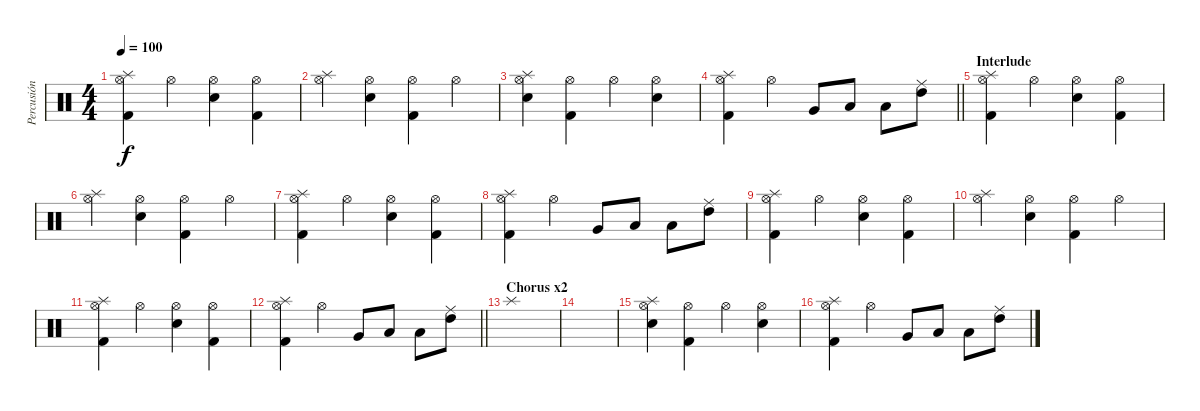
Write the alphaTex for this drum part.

\track ("Percusión" "Percusión") {instrument percussion}
\staff {score}
\articulation defaults
\ts (4 4)
\tempo 100
\clef neutral
\ks c
("Splash (hit)" "Hi-Hat (open)" "Kick (hit) 2").4{dy f} "Hi-Hat (open)".4 ("Snare (hit) 2" "Hi-Hat (open)").4 ("Hi-Hat (open)" "Kick (hit) 2").4 |
("Splash (hit)" "Hi-Hat (open)").4 ("Snare (hit) 2" "Hi-Hat (open)").4 ("Hi-Hat (open)" "Kick (hit) 2").4 "Hi-Hat (open)".4 |
("Splash (hit)" "Snare (hit) 2" "Hi-Hat (open)").4 ("Hi-Hat (open)" "Kick (hit) 2").4 "Hi-Hat (open)".4 ("Snare (hit) 2" "Hi-Hat (open)").4 |
\barLineRight lightlight
("Splash (hit)" "Hi-Hat (open)" "Kick (hit) 2").4 "Hi-Hat (open)".4 "Very Low Tom (hit)".8 "Low Floor Tom (hit)".8 "Low Tom (hit)".8 ("High Tom (hit)" "Ride (middle)").8 |
\section ("" "Interlude")
("Splash (hit)" "Hi-Hat (open)" "Kick (hit) 2").4 "Hi-Hat (open)".4 ("Snare (hit) 2" "Hi-Hat (open)").4 ("Hi-Hat (open)" "Kick (hit) 2").4 |
("Splash (hit)" "Hi-Hat (open)").4 ("Snare (hit) 2" "Hi-Hat (open)").4 ("Hi-Hat (open)" "Kick (hit) 2").4 "Hi-Hat (open)".4 |
("Splash (hit)" "Hi-Hat (open)" "Kick (hit) 2").4 "Hi-Hat (open)".4 ("Snare (hit) 2" "Hi-Hat (open)").4 ("Hi-Hat (open)" "Kick (hit) 2").4 |
("Splash (hit)" "Hi-Hat (open)" "Kick (hit) 2").4 "Hi-Hat (open)".4 "Very Low Tom (hit)".8 "Low Floor Tom (hit)".8 "Low Tom (hit)".8 ("High Tom (hit)" "Ride (middle)").8 |
("Splash (hit)" "Hi-Hat (open)" "Kick (hit) 2").4 "Hi-Hat (open)".4 ("Snare (hit) 2" "Hi-Hat (open)").4 ("Hi-Hat (open)" "Kick (hit) 2").4 |
("Splash (hit)" "Hi-Hat (open)").4 ("Snare (hit) 2" "Hi-Hat (open)").4 ("Hi-Hat (open)" "Kick (hit) 2").4 "Hi-Hat (open)".4 |
("Splash (hit)" "Hi-Hat (open)" "Kick (hit) 2").4 "Hi-Hat (open)".4 ("Snare (hit) 2" "Hi-Hat (open)").4 ("Hi-Hat (open)" "Kick (hit) 2").4 |
\barLineRight lightlight
("Splash (hit)" "Hi-Hat (open)" "Kick (hit) 2").4 "Hi-Hat (open)".4 "Very Low Tom (hit)".8 "Low Floor Tom (hit)".8 "Low Tom (hit)".8 ("High Tom (hit)" "Ride (middle)").8 |
\section ("" "Chorus x2")
"Splash (hit)".1 |
|
("Splash (hit)" "Snare (hit) 2" "Hi-Hat (open)").4 ("Hi-Hat (open)" "Kick (hit) 2").4 "Hi-Hat (open)".4 ("Snare (hit) 2" "Hi-Hat (open)").4 |
("Splash (hit)" "Hi-Hat (open)" "Kick (hit) 2").4 "Hi-Hat (open)".4 "Very Low Tom (hit)".8 "Low Floor Tom (hit)".8 "Low Tom (hit)".8 ("High Tom (hit)" "Ride (middle)").8
